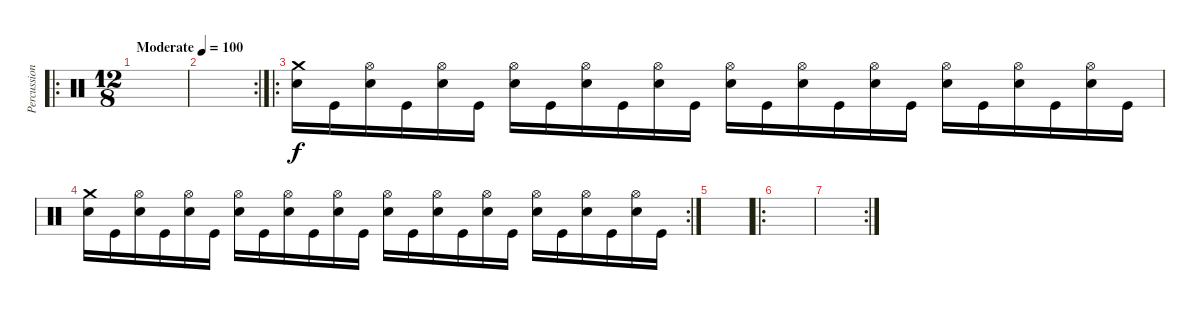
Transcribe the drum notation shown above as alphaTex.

\track ("Percussion" "Percussion") {instrument percussion}
\staff {score}
\articulation defaults
\ro
\ts (12 8)
\tempo (100 "Moderate")
\clef neutral
\ks c
|
\rc 2
|
\ro
("Crash medium (hit)" "Snare (hit) 2").16 "Kick (hit)".16 ("Hi-Hat (open)" "Snare (hit) 2").16 "Kick (hit)".16 ("Hi-Hat (open)" "Snare (hit) 2").16 "Kick (hit)".16 ("Hi-Hat (open)" "Snare (hit) 2").16 "Kick (hit)".16 ("Hi-Hat (open)" "Snare (hit) 2").16 "Kick (hit)".16 ("Hi-Hat (open)" "Snare (hit) 2").16 "Kick (hit)".16 ("Hi-Hat (open)" "Snare (hit) 2").16 "Kick (hit)".16 ("Hi-Hat (open)" "Snare (hit) 2").16 "Kick (hit)".16 ("Hi-Hat (open)" "Snare (hit) 2").16 "Kick (hit)".16 ("Hi-Hat (open)" "Snare (hit) 2").16 "Kick (hit)".16 ("Hi-Hat (open)" "Snare (hit) 2").16 "Kick (hit)".16 ("Hi-Hat (open)" "Snare (hit) 2").16 "Kick (hit)".16 |
\rc 2
("Crash medium (hit)" "Snare (hit) 2").16 "Kick (hit)".16 ("Hi-Hat (open)" "Snare (hit) 2").16 "Kick (hit)".16 ("Hi-Hat (open)" "Snare (hit) 2").16 "Kick (hit)".16 ("Hi-Hat (open)" "Snare (hit) 2").16 "Kick (hit)".16 ("Hi-Hat (open)" "Snare (hit) 2").16 "Kick (hit)".16 ("Hi-Hat (open)" "Snare (hit) 2").16 "Kick (hit)".16 ("Hi-Hat (open)" "Snare (hit) 2").16 "Kick (hit)".16 ("Hi-Hat (open)" "Snare (hit) 2").16 "Kick (hit)".16 ("Hi-Hat (open)" "Snare (hit) 2").16 "Kick (hit)".16 ("Hi-Hat (open)" "Snare (hit) 2").16 "Kick (hit)".16 ("Hi-Hat (open)" "Snare (hit) 2").16 "Kick (hit)".16 ("Hi-Hat (open)" "Snare (hit) 2").16 "Kick (hit)".16 |
|
\ro
|
\rc 2
